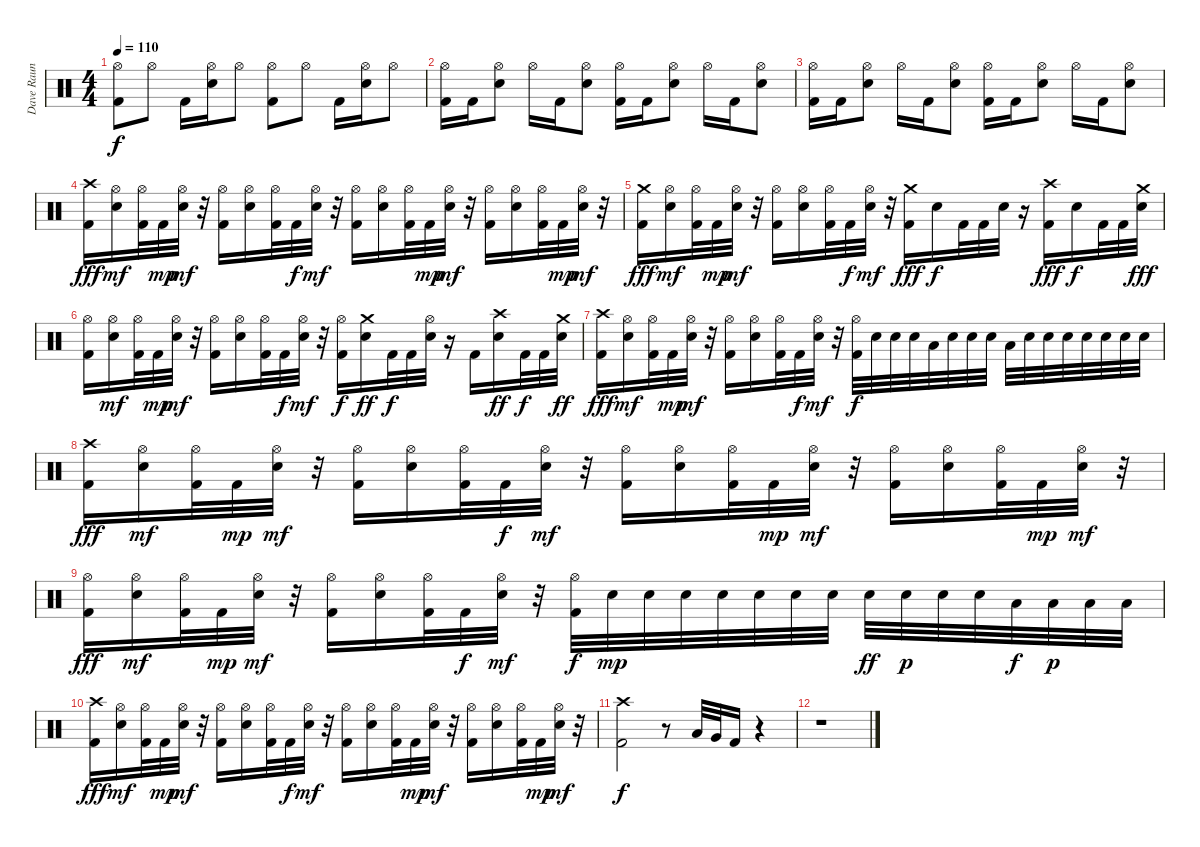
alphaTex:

\track ("Dave Raun" "Dave Raun") {instrument percussion}
\staff {score}
\articulation defaults
\ts (4 4)
\tempo 110
\clef neutral
\ks c
("Hi-Hat (open)" "Kick (hit) 2").8{dy f} "Hi-Hat (open)".8 "Kick (hit) 2".16 ("Hi-Hat (open)" "Electric Snare (hit)").16 "Hi-Hat (open)".8 ("Hi-Hat (open)" "Kick (hit) 2").8 "Hi-Hat (open)".8 "Kick (hit) 2".16 ("Hi-Hat (open)" "Electric Snare (hit)").16 "Hi-Hat (open)".8 |
("Hi-Hat (open)" "Kick (hit) 2").16 "Kick (hit) 2".16 ("Hi-Hat (open)" "Electric Snare (hit)").8 "Hi-Hat (open)".16 "Kick (hit) 2".16 ("Hi-Hat (open)" "Electric Snare (hit)").8 ("Hi-Hat (open)" "Kick (hit) 2").16 "Kick (hit) 2".16 ("Hi-Hat (open)" "Electric Snare (hit)").8 "Hi-Hat (open)".16 "Kick (hit) 2".16 ("Hi-Hat (open)" "Electric Snare (hit)").8 |
("Hi-Hat (open)" "Kick (hit) 2").16 "Kick (hit) 2".16 ("Hi-Hat (open)" "Electric Snare (hit)").8 "Hi-Hat (open)".16 "Kick (hit) 2".16 ("Hi-Hat (open)" "Electric Snare (hit)").8 ("Hi-Hat (open)" "Kick (hit) 2").16 "Kick (hit) 2".16 ("Hi-Hat (open)" "Electric Snare (hit)").8 "Hi-Hat (open)".16 "Kick (hit) 2".16 ("Hi-Hat (open)" "Electric Snare (hit)").8 |
("Crash high (hit)" "Kick (hit) 2").16{dy fff} ("Electric Snare (hit)" "Hi-Hat (open)").16{dy mf} ("Kick (hit) 2" "Hi-Hat (open)").32 "Kick (hit) 2".32{dy mp} ("Electric Snare (hit)" "Hi-Hat (open)").32{dy mf} r.32 ("Kick (hit) 2" "Hi-Hat (open)").16 ("Electric Snare (hit)" "Hi-Hat (open)").16 ("Kick (hit) 2" "Hi-Hat (open)").32 "Kick (hit) 2".32{dy f} ("Electric Snare (hit)" "Hi-Hat (open)").32{dy mf} r.32 ("Kick (hit) 2" "Hi-Hat (open)").16 ("Electric Snare (hit)" "Hi-Hat (open)").16 ("Kick (hit) 2" "Hi-Hat (open)").32 "Kick (hit) 2".32{dy mp} ("Electric Snare (hit)" "Hi-Hat (open)").32{dy mf} r.32 ("Kick (hit) 2" "Hi-Hat (open)").16 ("Electric Snare (hit)" "Hi-Hat (open)").16 ("Kick (hit) 2" "Hi-Hat (open)").32 "Kick (hit) 2".32{dy mp} ("Electric Snare (hit)" "Hi-Hat (open)").32{dy mf} r.32 |
("Kick (hit) 2" "Crash medium (hit)").16{dy fff} ("Electric Snare (hit)" "Hi-Hat (open)").16{dy mf} ("Kick (hit) 2" "Hi-Hat (open)").32 "Kick (hit) 2".32{dy mp} ("Electric Snare (hit)" "Hi-Hat (open)").32{dy mf} r.32 ("Kick (hit) 2" "Hi-Hat (open)").16 ("Electric Snare (hit)" "Hi-Hat (open)").16 ("Kick (hit) 2" "Hi-Hat (open)").32 "Kick (hit) 2".32{dy f} ("Electric Snare (hit)" "Hi-Hat (open)").32{dy mf} r.32 ("Kick (hit) 2" "Crash medium (hit)").16{dy fff} "Electric Snare (hit)".16{dy f} "Kick (hit) 2".32 "Kick (hit) 2".32 "Electric Snare (hit)".32 r.16 ("Kick (hit) 2" "Crash high (hit)").16{dy fff} "Electric Snare (hit)".16{dy f} "Kick (hit) 2".32 "Kick (hit) 2".32 ("Electric Snare (hit)" "Crash medium (hit)").32{dy fff} |
("Kick (hit) 2" "Hi-Hat (open)").16 ("Electric Snare (hit)" "Hi-Hat (open)").16{dy mf} ("Kick (hit) 2" "Hi-Hat (open)").32 "Kick (hit) 2".32{dy mp} ("Electric Snare (hit)" "Hi-Hat (open)").32{dy mf} r.32 ("Kick (hit) 2" "Hi-Hat (open)").16 ("Electric Snare (hit)" "Hi-Hat (open)").16 ("Kick (hit) 2" "Hi-Hat (open)").32 "Kick (hit) 2".32{dy f} ("Electric Snare (hit)" "Hi-Hat (open)").32{dy mf} r.32 ("Kick (hit) 2" "Hi-Hat (open)").16{dy f} ("Electric Snare (hit)" "Crash medium (hit)").16{dy ff} "Kick (hit) 2".32{dy f} "Kick (hit) 2".32 ("Electric Snare (hit)" "Hi-Hat (open)").32 r.16 "Kick (hit) 2".16 ("Electric Snare (hit)" "Crash high (hit)").16{dy ff} "Kick (hit) 2".32{dy f} "Kick (hit) 2".32 ("Electric Snare (hit)" "Crash medium (hit)").32{dy ff} |
("Crash high (hit)" "Kick (hit) 2").16{dy fff} ("Electric Snare (hit)" "Hi-Hat (open)").16{dy mf} ("Kick (hit) 2" "Hi-Hat (open)").32 "Kick (hit) 2".32{dy mp} ("Electric Snare (hit)" "Hi-Hat (open)").32{dy mf} r.32 ("Kick (hit) 2" "Hi-Hat (open)").16 ("Electric Snare (hit)" "Hi-Hat (open)").16 ("Kick (hit) 2" "Hi-Hat (open)").32 "Kick (hit) 2".32{dy f} ("Electric Snare (hit)" "Hi-Hat (open)").32{dy mf} r.32 ("Kick (hit) 2" "Hi-Hat (open)").32{dy f} "Electric Snare (hit)".32 "Electric Snare (hit)".32 "Electric Snare (hit)".32 "Low Tom (hit)".32 "Electric Snare (hit)".32 "Electric Snare (hit)".32 "Electric Snare (hit)".32 "Low Tom (hit)".32 "Electric Snare (hit)".32 "Electric Snare (hit)".32 "Electric Snare (hit)".32 "Electric Snare (hit)".32 "Electric Snare (hit)".32 "Electric Snare (hit)".32 "Electric Snare (hit)".32 |
("Crash high (hit)" "Kick (hit) 2").16{dy fff} ("Electric Snare (hit)" "Hi-Hat (open)").16{dy mf} ("Kick (hit) 2" "Hi-Hat (open)").32 "Kick (hit) 2".32{dy mp} ("Electric Snare (hit)" "Hi-Hat (open)").32{dy mf} r.32 ("Kick (hit) 2" "Hi-Hat (open)").16 ("Electric Snare (hit)" "Hi-Hat (open)").16 ("Kick (hit) 2" "Hi-Hat (open)").32 "Kick (hit) 2".32{dy f} ("Electric Snare (hit)" "Hi-Hat (open)").32{dy mf} r.32 ("Kick (hit) 2" "Hi-Hat (open)").16 ("Electric Snare (hit)" "Hi-Hat (open)").16 ("Kick (hit) 2" "Hi-Hat (open)").32 "Kick (hit) 2".32{dy mp} ("Electric Snare (hit)" "Hi-Hat (open)").32{dy mf} r.32 ("Kick (hit) 2" "Hi-Hat (open)").16 ("Electric Snare (hit)" "Hi-Hat (open)").16 ("Kick (hit) 2" "Hi-Hat (open)").32 "Kick (hit) 2".32{dy mp} ("Electric Snare (hit)" "Hi-Hat (open)").32{dy mf} r.32 |
("Hi-Hat (open)" "Kick (hit) 2").16{dy fff} ("Electric Snare (hit)" "Hi-Hat (open)").16{dy mf} ("Kick (hit) 2" "Hi-Hat (open)").32 "Kick (hit) 2".32{dy mp} ("Electric Snare (hit)" "Hi-Hat (open)").32{dy mf} r.32 ("Kick (hit) 2" "Hi-Hat (open)").16 ("Electric Snare (hit)" "Hi-Hat (open)").16 ("Kick (hit) 2" "Hi-Hat (open)").32 "Kick (hit) 2".32{dy f} ("Electric Snare (hit)" "Hi-Hat (open)").32{dy mf} r.32 ("Kick (hit) 2" "Hi-Hat (open)").32{dy f} "Electric Snare (hit)".32{dy mp} "Electric Snare (hit)".32 "Electric Snare (hit)".32 "Electric Snare (hit)".32 "Electric Snare (hit)".32 "Electric Snare (hit)".32 "Electric Snare (hit)".32 "Electric Snare (hit)".32{dy ff} "Electric Snare (hit)".32{dy p} "Electric Snare (hit)".32 "Electric Snare (hit)".32 "Low Tom (hit)".32{dy f} "Low Tom (hit)".32{dy p} "Low Tom (hit)".32 "Low Tom (hit)".32 |
("Crash high (hit)" "Kick (hit) 2").16{dy fff} ("Electric Snare (hit)" "Hi-Hat (open)").16{dy mf} ("Kick (hit) 2" "Hi-Hat (open)").32 "Kick (hit) 2".32{dy mp} ("Electric Snare (hit)" "Hi-Hat (open)").32{dy mf} r.32 ("Kick (hit) 2" "Hi-Hat (open)").16 ("Electric Snare (hit)" "Hi-Hat (open)").16 ("Kick (hit) 2" "Hi-Hat (open)").32 "Kick (hit) 2".32{dy f} ("Electric Snare (hit)" "Hi-Hat (open)").32{dy mf} r.32 ("Kick (hit) 2" "Hi-Hat (open)").16 ("Electric Snare (hit)" "Hi-Hat (open)").16 ("Kick (hit) 2" "Hi-Hat (open)").32 "Kick (hit) 2".32{dy mp} ("Electric Snare (hit)" "Hi-Hat (open)").32{dy mf} r.32 ("Kick (hit) 2" "Hi-Hat (open)").16 ("Electric Snare (hit)" "Hi-Hat (open)").16 ("Kick (hit) 2" "Hi-Hat (open)").32 "Kick (hit) 2".32{dy mp} ("Electric Snare (hit)" "Hi-Hat (open)").32{dy mf} r.32 |
("Crash high (hit)" "Kick (hit) 2").2{dy f} r.8 "Low Tom (hit)".32 "Very Low Tom (hit)".32 "Kick (hit) 2".16 r.4 |
r.1
